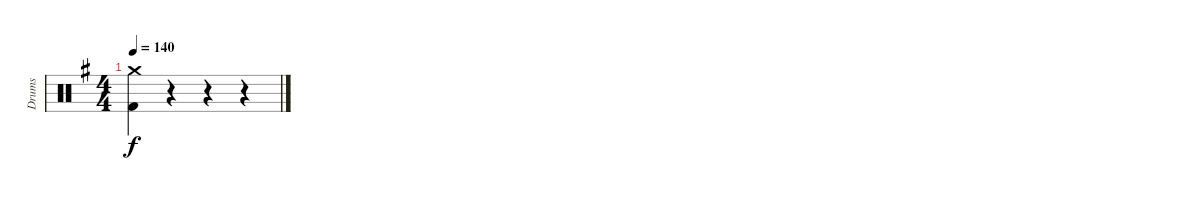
\track ("Drums" "Drums") {instrument percussion}
\staff {score}
\articulation defaults
\ts (4 4)
\tempo 140
\clef neutral
\ks g
("Crash medium (hit)" "Kick (hit) 2").4{dy f} r.4 r.4 r.4
